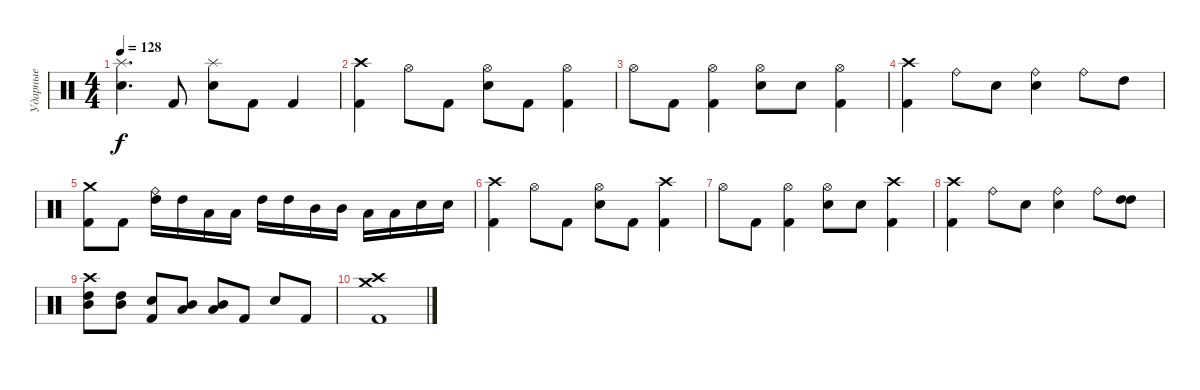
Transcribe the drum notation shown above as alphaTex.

\track ("Ударные" "Ударные") {instrument percussion}
\staff {score}
\articulation defaults
\ts (4 4)
\tempo 128
\clef neutral
\ks c
("Splash (hit)" "Snare (hit) 2").4{d dy f} "Kick (hit) 2".8 ("Splash (hit)" "Snare (hit) 2").8 "Kick (hit) 2".8 "Kick (hit) 2".4 |
("Crash high (hit)" "Kick (hit) 2").4 "Hi-Hat (open)".8 "Kick (hit) 2".8 ("Hi-Hat (open)" "Snare (hit) 2").8 "Kick (hit) 2".8 ("Hi-Hat (open)" "Kick (hit) 2").4 |
"Hi-Hat (open)".8 "Kick (hit) 2".8 ("Hi-Hat (open)" "Kick (hit) 2").4 ("Hi-Hat (open)" "Snare (hit) 2").8 "Snare (hit) 2".8 ("Hi-Hat (open)" "Kick (hit) 2").4 |
("Crash high (hit)" "Kick (hit) 2").4 "Ride (bell)".8 "Snare (hit) 2".8 ("Ride (bell)" "Snare (hit) 2").4 "Ride (bell)".8 "High Tom (hit)".8 |
("Crash medium (hit)" "Kick (hit) 2").8 "Kick (hit) 2".8 ("Ride (bell)" "High Tom (hit)").16 "High Tom (hit)".16 "Low Tom (hit)".16 "Low Tom (hit)".16 "High Tom (hit)".16 "High Tom (hit)".16 "Mid Tom (hit)".16 "Mid Tom (hit)".16 "Low Tom (hit)".16 "Low Tom (hit)".16 "Snare (hit) 2".16 "Snare (hit) 2".16 |
("Crash high (hit)" "Kick (hit) 2").4 "Hi-Hat (open)".8 "Kick (hit) 2".8 ("Hi-Hat (open)" "Snare (hit) 2").8 "Kick (hit) 2".8 ("Crash high (hit)" "Kick (hit) 2").4 |
"Hi-Hat (open)".8 "Kick (hit) 2".8 ("Hi-Hat (open)" "Kick (hit) 2").4 ("Hi-Hat (open)" "Snare (hit) 2").8 "Snare (hit) 2".8 ("Crash high (hit)" "Kick (hit) 2").4 |
("Crash high (hit)" "Kick (hit) 2").4 "Ride (bell)".8 "Snare (hit) 2".8 ("Ride (bell)" "Snare (hit) 2").4 "Ride (bell)".8 ("High Tom (hit)" "High Tom (hit)").8 |
("Crash high (hit)" "High Tom (hit)" "Mid Tom (hit)").8 ("High Tom (hit)" "Mid Tom (hit)").8 ("Snare (hit) 2" "Kick (hit) 2").8 ("Mid Tom (hit)" "Low Tom (hit)").8 ("Mid Tom (hit)" "Low Tom (hit)").8 "Kick (hit) 2".8 "Snare (hit) 2".8 "Kick (hit) 2".8 |
("Crash high (hit)" "Crash medium (hit)" "Kick (hit) 2").1
